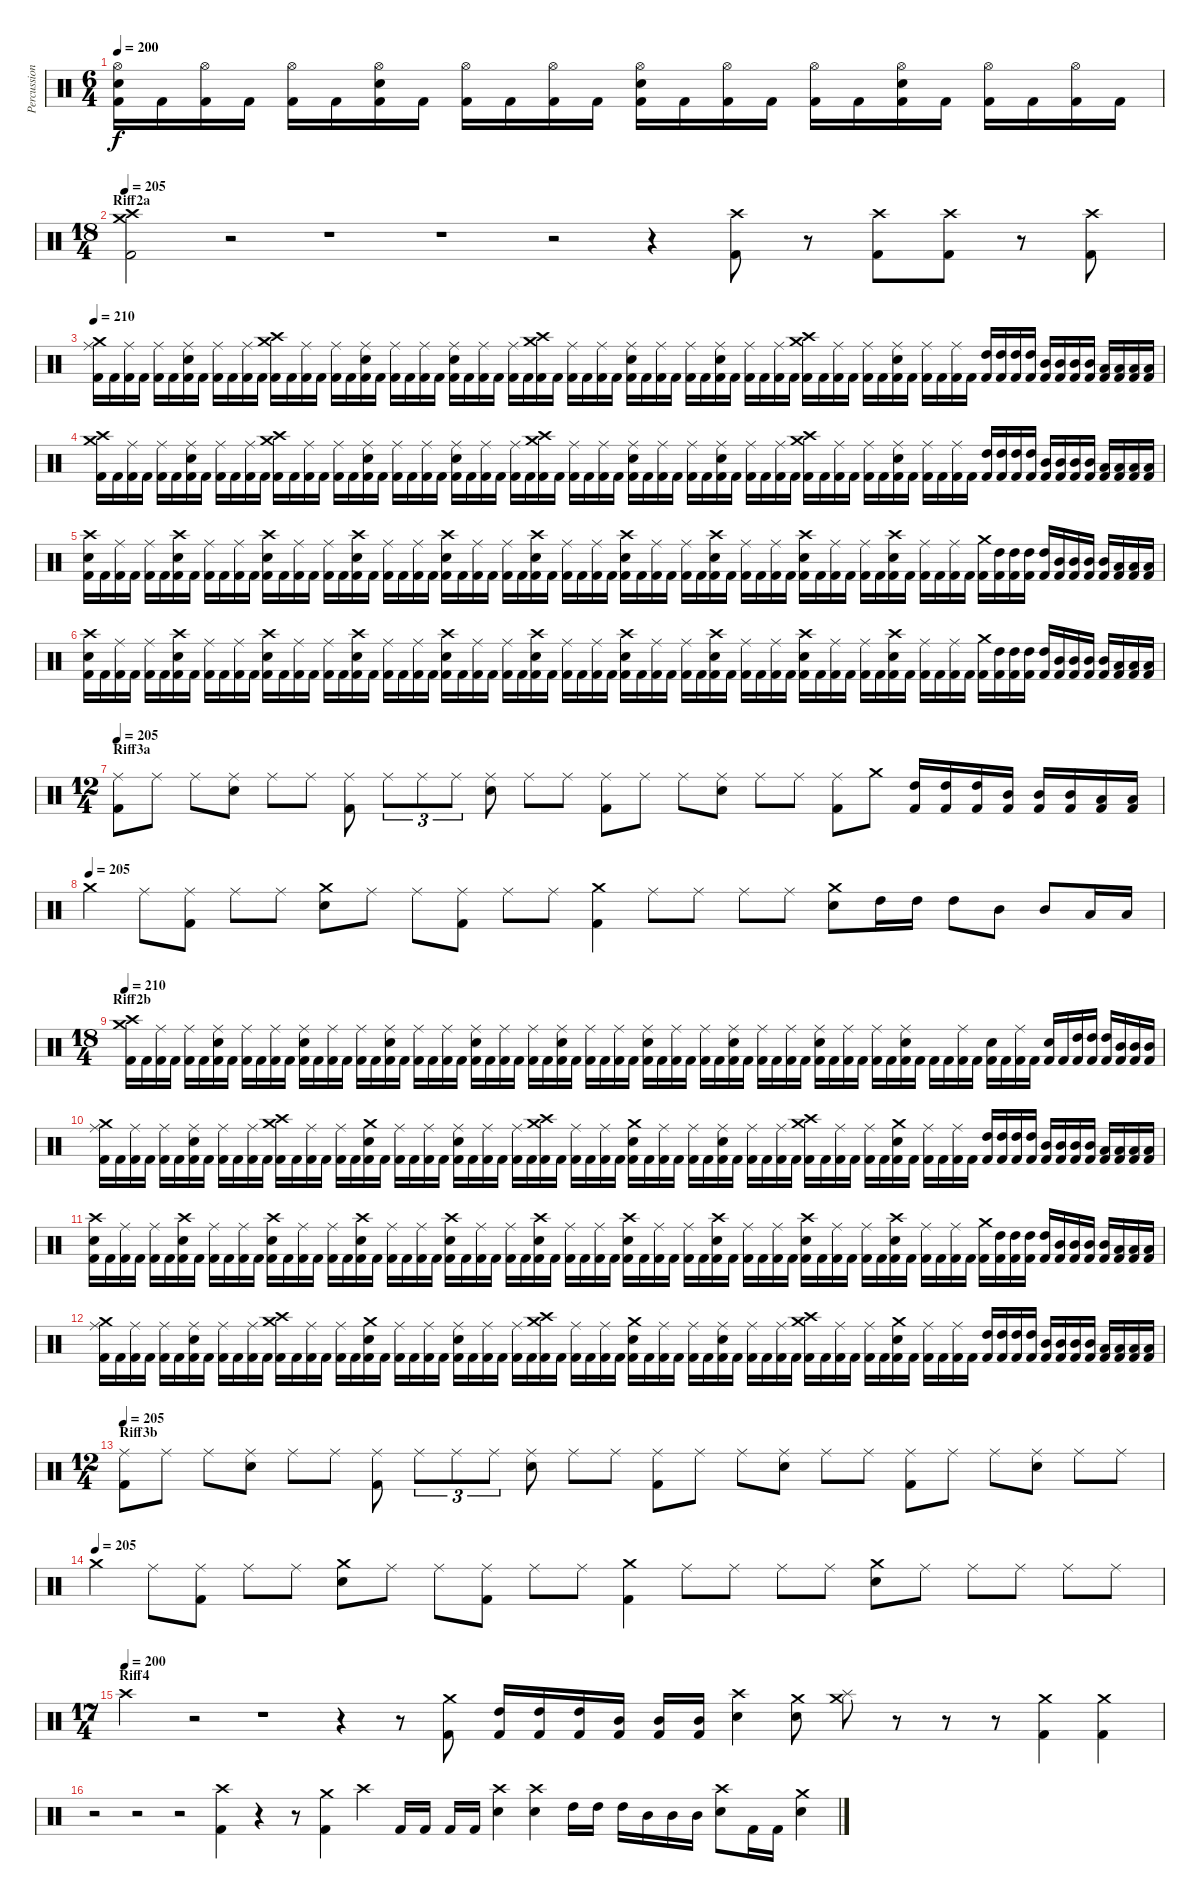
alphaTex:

\track ("Percussion" "Percussion") {instrument percussion}
\staff {score}
\articulation defaults
\ts (6 4)
\tempo 200
\clef neutral
\ks c
("Hi-Hat (open)" "Electric Snare (hit)" "Kick (hit) 2").16{dy f} "Kick (hit) 2".16 ("Hi-Hat (open)" "Kick (hit) 2").16 "Kick (hit) 2".16 ("Hi-Hat (open)" "Kick (hit) 2").16 "Kick (hit) 2".16 ("Hi-Hat (open)" "Electric Snare (hit)" "Kick (hit) 2").16 "Kick (hit) 2".16 ("Hi-Hat (open)" "Kick (hit) 2").16 "Kick (hit) 2".16 ("Hi-Hat (open)" "Kick (hit) 2").16 "Kick (hit) 2".16 ("Hi-Hat (open)" "Electric Snare (hit)" "Kick (hit) 2").16 "Kick (hit) 2".16 ("Hi-Hat (open)" "Kick (hit) 2").16 "Kick (hit) 2".16 ("Hi-Hat (open)" "Kick (hit) 2").16 "Kick (hit) 2".16 ("Hi-Hat (open)" "Electric Snare (hit)" "Kick (hit) 2").16 "Kick (hit) 2".16 ("Hi-Hat (open)" "Kick (hit) 2").16 "Kick (hit) 2".16 ("Hi-Hat (open)" "Kick (hit) 2").16 "Kick (hit) 2".16 |
\ts (18 4)
\section ("" "Riff2a")
\tempo 205
("Crash medium (hit)" "Crash high (hit)" "Kick (hit) 2").2 r.2 r.1 r.1 r.2 r.4 ("Crash high (hit)" "Kick (hit) 2").8 r.8 ("Crash high (hit)" "Kick (hit) 2").8 ("Crash high (hit)" "Kick (hit) 2").8 r.8 ("Crash high (hit)" "Kick (hit) 2").8 |
\tempo 210
("Ride (middle)" "Crash medium (hit)" "Kick (hit) 2").16 "Kick (hit) 2".16 ("Ride (middle)" "Kick (hit) 2").16 "Kick (hit) 2".16 ("Ride (middle)" "Kick (hit) 2").16 "Kick (hit) 2".16 ("Ride (middle)" "Electric Snare (hit)" "Kick (hit) 2").16 "Kick (hit) 2".16 ("Ride (middle)" "Kick (hit) 2").16 "Kick (hit) 2".16 ("Ride (middle)" "Kick (hit) 2").16 "Kick (hit) 2".16 ("Crash high (hit)" "Crash medium (hit)" "Kick (hit) 2").16 "Kick (hit) 2".16 ("Ride (middle)" "Kick (hit) 2").16 "Kick (hit) 2".16 ("Ride (middle)" "Kick (hit) 2").16 "Kick (hit) 2".16 ("Ride (middle)" "Electric Snare (hit)" "Kick (hit) 2").16 "Kick (hit) 2".16 ("Ride (middle)" "Kick (hit) 2").16 "Kick (hit) 2".16 ("Ride (middle)" "Kick (hit) 2").16 "Kick (hit) 2".16 ("Ride (middle)" "Electric Snare (hit)" "Kick (hit) 2").16 "Kick (hit) 2".16 ("Ride (middle)" "Kick (hit) 2").16 "Kick (hit) 2".16 ("Ride (middle)" "Kick (hit) 2").16 "Kick (hit) 2".16 ("Crash high (hit)" "Crash medium (hit)" "Kick (hit) 2").16 "Kick (hit) 2".16 ("Ride (middle)" "Kick (hit) 2").16 "Kick (hit) 2".16 ("Ride (middle)" "Kick (hit) 2").16 "Kick (hit) 2".16 ("Ride (middle)" "Electric Snare (hit)" "Kick (hit) 2").16 "Kick (hit) 2".16 ("Ride (middle)" "Kick (hit) 2").16 "Kick (hit) 2".16 ("Ride (middle)" "Kick (hit) 2").16 "Kick (hit) 2".16 ("Ride (middle)" "Electric Snare (hit)" "Kick (hit) 2").16 "Kick (hit) 2".16 ("Ride (middle)" "Kick (hit) 2").16 "Kick (hit) 2".16 ("Ride (middle)" "Kick (hit) 2").16 "Kick (hit) 2".16 ("Crash medium (hit)" "Crash high (hit)" "Kick (hit) 2").16 "Kick (hit) 2".16 ("Ride (middle)" "Kick (hit) 2").16 "Kick (hit) 2".16 ("Ride (middle)" "Kick (hit) 2").16 "Kick (hit) 2".16 ("Ride (middle)" "Electric Snare (hit)" "Kick (hit) 2").16 "Kick (hit) 2".16 ("Ride (middle)" "Kick (hit) 2").16 "Kick (hit) 2".16 ("Ride (middle)" "Kick (hit) 2").16 "Kick (hit) 2".16 ("High Tom (hit)" "Kick (hit) 2").16 ("High Tom (hit)" "Kick (hit) 2").16 ("High Tom (hit)" "Kick (hit) 2").16 ("High Tom (hit)" "Kick (hit) 2").16 ("Mid Tom (hit)" "Kick (hit) 2").16 ("Mid Tom (hit)" "Kick (hit) 2").16 ("Mid Tom (hit)" "Kick (hit) 2").16 ("Mid Tom (hit)" "Kick (hit) 2").16 ("Low Tom (hit)" "Kick (hit) 2").16 ("Low Tom (hit)" "Kick (hit) 2").16 ("Low Tom (hit)" "Kick (hit) 2").16 ("Low Tom (hit)" "Kick (hit) 2").16 |
("Crash high (hit)" "Crash medium (hit)" "Kick (hit) 2").16 "Kick (hit) 2".16 ("Ride (middle)" "Kick (hit) 2").16 "Kick (hit) 2".16 ("Ride (middle)" "Kick (hit) 2").16 "Kick (hit) 2".16 ("Ride (middle)" "Electric Snare (hit)" "Kick (hit) 2").16 "Kick (hit) 2".16 ("Ride (middle)" "Kick (hit) 2").16 "Kick (hit) 2".16 ("Ride (middle)" "Kick (hit) 2").16 "Kick (hit) 2".16 ("Crash high (hit)" "Crash medium (hit)" "Kick (hit) 2").16 "Kick (hit) 2".16 ("Ride (middle)" "Kick (hit) 2").16 "Kick (hit) 2".16 ("Ride (middle)" "Kick (hit) 2").16 "Kick (hit) 2".16 ("Ride (middle)" "Electric Snare (hit)" "Kick (hit) 2").16 "Kick (hit) 2".16 ("Ride (middle)" "Kick (hit) 2").16 "Kick (hit) 2".16 ("Ride (middle)" "Kick (hit) 2").16 "Kick (hit) 2".16 ("Ride (middle)" "Electric Snare (hit)" "Kick (hit) 2").16 "Kick (hit) 2".16 ("Ride (middle)" "Kick (hit) 2").16 "Kick (hit) 2".16 ("Ride (middle)" "Kick (hit) 2").16 "Kick (hit) 2".16 ("Crash high (hit)" "Crash medium (hit)" "Kick (hit) 2").16 "Kick (hit) 2".16 ("Ride (middle)" "Kick (hit) 2").16 "Kick (hit) 2".16 ("Ride (middle)" "Kick (hit) 2").16 "Kick (hit) 2".16 ("Ride (middle)" "Electric Snare (hit)" "Kick (hit) 2").16 "Kick (hit) 2".16 ("Ride (middle)" "Kick (hit) 2").16 "Kick (hit) 2".16 ("Ride (middle)" "Kick (hit) 2").16 "Kick (hit) 2".16 ("Ride (middle)" "Electric Snare (hit)" "Kick (hit) 2").16 "Kick (hit) 2".16 ("Ride (middle)" "Kick (hit) 2").16 "Kick (hit) 2".16 ("Ride (middle)" "Kick (hit) 2").16 "Kick (hit) 2".16 ("Crash medium (hit)" "Crash high (hit)" "Kick (hit) 2").16 "Kick (hit) 2".16 ("Ride (middle)" "Kick (hit) 2").16 "Kick (hit) 2".16 ("Ride (middle)" "Kick (hit) 2").16 "Kick (hit) 2".16 ("Ride (middle)" "Electric Snare (hit)" "Kick (hit) 2").16 "Kick (hit) 2".16 ("Ride (middle)" "Kick (hit) 2").16 "Kick (hit) 2".16 ("Ride (middle)" "Kick (hit) 2").16 "Kick (hit) 2".16 ("High Tom (hit)" "Kick (hit) 2").16 ("High Tom (hit)" "Kick (hit) 2").16 ("High Tom (hit)" "Kick (hit) 2").16 ("High Tom (hit)" "Kick (hit) 2").16 ("Mid Tom (hit)" "Kick (hit) 2").16 ("Mid Tom (hit)" "Kick (hit) 2").16 ("Mid Tom (hit)" "Kick (hit) 2").16 ("Mid Tom (hit)" "Kick (hit) 2").16 ("Low Tom (hit)" "Kick (hit) 2").16 ("Low Tom (hit)" "Kick (hit) 2").16 ("Low Tom (hit)" "Kick (hit) 2").16 ("Low Tom (hit)" "Kick (hit) 2").16 |
("Crash high (hit)" "Electric Snare (hit)" "Kick (hit) 2").16 "Kick (hit) 2".16 ("Ride (middle)" "Kick (hit) 2").16 "Kick (hit) 2".16 ("Ride (middle)" "Kick (hit) 2").16 "Kick (hit) 2".16 ("Crash high (hit)" "Electric Snare (hit)" "Kick (hit) 2").16 "Kick (hit) 2".16 ("Ride (middle)" "Kick (hit) 2").16 "Kick (hit) 2".16 ("Ride (middle)" "Kick (hit) 2").16 "Kick (hit) 2".16 ("Crash high (hit)" "Electric Snare (hit)" "Kick (hit) 2").16 "Kick (hit) 2".16 ("Ride (middle)" "Kick (hit) 2").16 "Kick (hit) 2".16 ("Ride (middle)" "Kick (hit) 2").16 "Kick (hit) 2".16 ("Crash high (hit)" "Electric Snare (hit)" "Kick (hit) 2").16 "Kick (hit) 2".16 ("Ride (middle)" "Kick (hit) 2").16 "Kick (hit) 2".16 ("Ride (middle)" "Kick (hit) 2").16 "Kick (hit) 2".16 ("Crash high (hit)" "Electric Snare (hit)" "Kick (hit) 2").16 "Kick (hit) 2".16 ("Ride (middle)" "Kick (hit) 2").16 "Kick (hit) 2".16 ("Ride (middle)" "Kick (hit) 2").16 "Kick (hit) 2".16 ("Crash high (hit)" "Electric Snare (hit)" "Kick (hit) 2").16 "Kick (hit) 2".16 ("Ride (middle)" "Kick (hit) 2").16 "Kick (hit) 2".16 ("Ride (middle)" "Kick (hit) 2").16 "Kick (hit) 2".16 ("Crash high (hit)" "Electric Snare (hit)" "Kick (hit) 2").16 "Kick (hit) 2".16 ("Ride (middle)" "Kick (hit) 2").16 "Kick (hit) 2".16 ("Ride (middle)" "Kick (hit) 2").16 "Kick (hit) 2".16 ("Crash high (hit)" "Electric Snare (hit)" "Kick (hit) 2").16 "Kick (hit) 2".16 ("Ride (middle)" "Kick (hit) 2").16 "Kick (hit) 2".16 ("Ride (middle)" "Kick (hit) 2").16 "Kick (hit) 2".16 ("Crash high (hit)" "Electric Snare (hit)" "Kick (hit) 2").16 "Kick (hit) 2".16 ("Ride (middle)" "Kick (hit) 2").16 "Kick (hit) 2".16 ("Ride (middle)" "Kick (hit) 2").16 "Kick (hit) 2".16 ("Crash high (hit)" "Electric Snare (hit)" "Kick (hit) 2").16 "Kick (hit) 2".16 ("Ride (middle)" "Kick (hit) 2").16 "Kick (hit) 2".16 ("Ride (middle)" "Kick (hit) 2").16 "Kick (hit) 2".16 ("Crash medium (hit)" "Kick (hit) 2").16 ("High Tom (hit)" "Kick (hit) 2").16 ("High Tom (hit)" "Kick (hit) 2").16 ("High Tom (hit)" "Kick (hit) 2").16 ("High Tom (hit)" "Kick (hit) 2").16 ("Mid Tom (hit)" "Kick (hit) 2").16 ("Mid Tom (hit)" "Kick (hit) 2").16 ("Mid Tom (hit)" "Kick (hit) 2").16 ("Mid Tom (hit)" "Kick (hit) 2").16 ("Low Tom (hit)" "Kick (hit) 2").16 ("Low Tom (hit)" "Kick (hit) 2").16 ("Low Tom (hit)" "Kick (hit) 2").16 |
("Crash high (hit)" "Electric Snare (hit)" "Kick (hit) 2").16 "Kick (hit) 2".16 ("Ride (middle)" "Kick (hit) 2").16 "Kick (hit) 2".16 ("Ride (middle)" "Kick (hit) 2").16 "Kick (hit) 2".16 ("Crash high (hit)" "Electric Snare (hit)" "Kick (hit) 2").16 "Kick (hit) 2".16 ("Ride (middle)" "Kick (hit) 2").16 "Kick (hit) 2".16 ("Ride (middle)" "Kick (hit) 2").16 "Kick (hit) 2".16 ("Crash high (hit)" "Electric Snare (hit)" "Kick (hit) 2").16 "Kick (hit) 2".16 ("Ride (middle)" "Kick (hit) 2").16 "Kick (hit) 2".16 ("Ride (middle)" "Kick (hit) 2").16 "Kick (hit) 2".16 ("Crash high (hit)" "Electric Snare (hit)" "Kick (hit) 2").16 "Kick (hit) 2".16 ("Ride (middle)" "Kick (hit) 2").16 "Kick (hit) 2".16 ("Ride (middle)" "Kick (hit) 2").16 "Kick (hit) 2".16 ("Crash high (hit)" "Electric Snare (hit)" "Kick (hit) 2").16 "Kick (hit) 2".16 ("Ride (middle)" "Kick (hit) 2").16 "Kick (hit) 2".16 ("Ride (middle)" "Kick (hit) 2").16 "Kick (hit) 2".16 ("Crash high (hit)" "Electric Snare (hit)" "Kick (hit) 2").16 "Kick (hit) 2".16 ("Ride (middle)" "Kick (hit) 2").16 "Kick (hit) 2".16 ("Ride (middle)" "Kick (hit) 2").16 "Kick (hit) 2".16 ("Crash high (hit)" "Electric Snare (hit)" "Kick (hit) 2").16 "Kick (hit) 2".16 ("Ride (middle)" "Kick (hit) 2").16 "Kick (hit) 2".16 ("Ride (middle)" "Kick (hit) 2").16 "Kick (hit) 2".16 ("Crash high (hit)" "Electric Snare (hit)" "Kick (hit) 2").16 "Kick (hit) 2".16 ("Ride (middle)" "Kick (hit) 2").16 "Kick (hit) 2".16 ("Ride (middle)" "Kick (hit) 2").16 "Kick (hit) 2".16 ("Crash high (hit)" "Electric Snare (hit)" "Kick (hit) 2").16 "Kick (hit) 2".16 ("Ride (middle)" "Kick (hit) 2").16 "Kick (hit) 2".16 ("Ride (middle)" "Kick (hit) 2").16 "Kick (hit) 2".16 ("Crash high (hit)" "Electric Snare (hit)" "Kick (hit) 2").16 "Kick (hit) 2".16 ("Ride (middle)" "Kick (hit) 2").16 "Kick (hit) 2".16 ("Ride (middle)" "Kick (hit) 2").16 "Kick (hit) 2".16 ("Crash medium (hit)" "Kick (hit) 2").16 ("High Tom (hit)" "Kick (hit) 2").16 ("High Tom (hit)" "Kick (hit) 2").16 ("High Tom (hit)" "Kick (hit) 2").16 ("High Tom (hit)" "Kick (hit) 2").16 ("Mid Tom (hit)" "Kick (hit) 2").16 ("Mid Tom (hit)" "Kick (hit) 2").16 ("Mid Tom (hit)" "Kick (hit) 2").16 ("Mid Tom (hit)" "Kick (hit) 2").16 ("Low Tom (hit)" "Kick (hit) 2").16 ("Low Tom (hit)" "Kick (hit) 2").16 ("Low Tom (hit)" "Kick (hit) 2").16 |
\ts (12 4)
\section ("" "Riff3a")
\tempo 205
("Ride (middle)" "Kick (hit) 2").8 "Ride (middle)".8 "Ride (middle)".8 ("Ride (middle)" "Electric Snare (hit)").8 "Ride (middle)".8 "Ride (middle)".8 ("Ride (middle)" "Kick (hit) 2").8 "Ride (middle)".8{tu (3 2)} "Ride (middle)".8{tu (3 2)} "Ride (middle)".8{tu (3 2)} ("Ride (middle)" "Electric Snare (hit)").8 "Ride (middle)".8 "Ride (middle)".8 ("Ride (middle)" "Kick (hit) 2").8 "Ride (middle)".8 "Ride (middle)".8 ("Ride (middle)" "Electric Snare (hit)").8 "Ride (middle)".8 "Ride (middle)".8 ("Ride (middle)" "Kick (hit) 2").8 "Crash medium (hit)".8 ("High Tom (hit)" "Kick (hit) 2").16 ("High Tom (hit)" "Kick (hit) 2").16 ("High Tom (hit)" "Kick (hit) 2").16 ("Mid Tom (hit)" "Kick (hit) 2").16 ("Mid Tom (hit)" "Kick (hit) 2").16 ("Mid Tom (hit)" "Kick (hit) 2").16 ("Low Tom (hit)" "Kick (hit) 2").16 ("Low Tom (hit)" "Kick (hit) 2").16 |
\tempo (205)
"Crash medium (hit)".4 "Ride (middle)".8 ("Ride (middle)" "Kick (hit) 2").8 "Ride (middle)".8 "Ride (middle)".8 ("Crash medium (hit)" "Electric Snare (hit)").8 "Ride (middle)".8 "Ride (middle)".8 ("Ride (middle)" "Kick (hit) 2").8 "Ride (middle)".8 "Ride (middle)".8 ("Crash medium (hit)" "Kick (hit) 2").4 "Ride (middle)".8 "Ride (middle)".8 "Ride (middle)".8 "Ride (middle)".8 ("Crash medium (hit)" "Electric Snare (hit)").8 "High Tom (hit)".16 "High Tom (hit)".16 "High Tom (hit)".8 "Mid Tom (hit)".8 "Mid Tom (hit)".8 "Low Tom (hit)".16 "Low Tom (hit)".16 |
\ts (18 4)
\section ("" "Riff2b")
\tempo 210
("Crash medium (hit)" "Crash high (hit)" "Kick (hit) 2").16 "Kick (hit) 2".16 ("Ride (middle)" "Kick (hit) 2").16 "Kick (hit) 2".16 ("Ride (middle)" "Kick (hit) 2").16 "Kick (hit) 2".16 ("Ride (middle)" "Electric Snare (hit)" "Kick (hit) 2").16 "Kick (hit) 2".16 ("Ride (middle)" "Kick (hit) 2").16 "Kick (hit) 2".16 ("Ride (middle)" "Kick (hit) 2").16 "Kick (hit) 2".16 ("Ride (middle)" "Electric Snare (hit)" "Kick (hit) 2").16 "Kick (hit) 2".16 ("Ride (middle)" "Kick (hit) 2").16 "Kick (hit) 2".16 ("Ride (middle)" "Kick (hit) 2").16 "Kick (hit) 2".16 ("Ride (middle)" "Electric Snare (hit)" "Kick (hit) 2").16 "Kick (hit) 2".16 ("Ride (middle)" "Kick (hit) 2").16 "Kick (hit) 2".16 ("Ride (middle)" "Kick (hit) 2").16 "Kick (hit) 2".16 ("Ride (middle)" "Electric Snare (hit)" "Kick (hit) 2").16 "Kick (hit) 2".16 ("Ride (middle)" "Kick (hit) 2").16 "Kick (hit) 2".16 ("Ride (middle)" "Kick (hit) 2").16 "Kick (hit) 2".16 ("Ride (middle)" "Electric Snare (hit)" "Kick (hit) 2").16 "Kick (hit) 2".16 ("Ride (middle)" "Kick (hit) 2").16 "Kick (hit) 2".16 ("Ride (middle)" "Kick (hit) 2").16 "Kick (hit) 2".16 ("Ride (middle)" "Electric Snare (hit)" "Kick (hit) 2").16 "Kick (hit) 2".16 ("Ride (middle)" "Kick (hit) 2").16 "Kick (hit) 2".16 ("Ride (middle)" "Kick (hit) 2").16 "Kick (hit) 2".16 ("Ride (middle)" "Electric Snare (hit)" "Kick (hit) 2").16 "Kick (hit) 2".16 ("Ride (middle)" "Kick (hit) 2").16 "Kick (hit) 2".16 ("Ride (middle)" "Kick (hit) 2").16 "Kick (hit) 2".16 ("Ride (middle)" "Electric Snare (hit)" "Kick (hit) 2").16 "Kick (hit) 2".16 ("Ride (middle)" "Kick (hit) 2").16 "Kick (hit) 2".16 ("Ride (middle)" "Kick (hit) 2").16 "Kick (hit) 2".16 ("Ride (middle)" "Electric Snare (hit)" "Kick (hit) 2").16 "Kick (hit) 2".16 "Kick (hit) 2".16 "Kick (hit) 2".16 ("Ride (middle)" "Kick (hit) 2").16 "Kick (hit) 2".16 ("Electric Snare (hit)" "Kick (hit) 2").16 "Kick (hit) 2".16 ("Ride (middle)" "Kick (hit) 2").16 "Kick (hit) 2".16 ("Electric Snare (hit)" "Kick (hit) 2").16 "Kick (hit) 2".16 ("High Tom (hit)" "Kick (hit) 2").16 ("High Tom (hit)" "Kick (hit) 2").16 ("High Tom (hit)" "Kick (hit) 2").16 ("Mid Tom (hit)" "Kick (hit) 2").16 ("Mid Tom (hit)" "Kick (hit) 2").16 ("Mid Tom (hit)" "Kick (hit) 2").16 |
("Ride (middle)" "Crash medium (hit)" "Kick (hit) 2").16 "Kick (hit) 2".16 ("Ride (middle)" "Kick (hit) 2").16 "Kick (hit) 2".16 ("Ride (middle)" "Kick (hit) 2").16 "Kick (hit) 2".16 ("Ride (middle)" "Electric Snare (hit)" "Kick (hit) 2").16 "Kick (hit) 2".16 ("Ride (middle)" "Kick (hit) 2").16 "Kick (hit) 2".16 ("Ride (middle)" "Kick (hit) 2").16 "Kick (hit) 2".16 ("Crash high (hit)" "Crash medium (hit)" "Kick (hit) 2").16 "Kick (hit) 2".16 ("Ride (middle)" "Kick (hit) 2").16 "Kick (hit) 2".16 ("Ride (middle)" "Kick (hit) 2").16 "Kick (hit) 2".16 ("Crash medium (hit)" "Electric Snare (hit)" "Kick (hit) 2").16 "Kick (hit) 2".16 ("Ride (middle)" "Kick (hit) 2").16 "Kick (hit) 2".16 ("Ride (middle)" "Kick (hit) 2").16 "Kick (hit) 2".16 ("Ride (middle)" "Electric Snare (hit)" "Kick (hit) 2").16 "Kick (hit) 2".16 ("Ride (middle)" "Kick (hit) 2").16 "Kick (hit) 2".16 ("Ride (middle)" "Kick (hit) 2").16 "Kick (hit) 2".16 ("Crash high (hit)" "Crash medium (hit)" "Kick (hit) 2").16 "Kick (hit) 2".16 ("Ride (middle)" "Kick (hit) 2").16 "Kick (hit) 2".16 ("Ride (middle)" "Kick (hit) 2").16 "Kick (hit) 2".16 ("Crash medium (hit)" "Electric Snare (hit)" "Kick (hit) 2").16 "Kick (hit) 2".16 ("Ride (middle)" "Kick (hit) 2").16 "Kick (hit) 2".16 ("Ride (middle)" "Kick (hit) 2").16 "Kick (hit) 2".16 ("Ride (middle)" "Electric Snare (hit)" "Kick (hit) 2").16 "Kick (hit) 2".16 ("Ride (middle)" "Kick (hit) 2").16 "Kick (hit) 2".16 ("Ride (middle)" "Kick (hit) 2").16 "Kick (hit) 2".16 ("Crash medium (hit)" "Crash high (hit)" "Kick (hit) 2").16 "Kick (hit) 2".16 ("Ride (middle)" "Kick (hit) 2").16 "Kick (hit) 2".16 ("Ride (middle)" "Kick (hit) 2").16 "Kick (hit) 2".16 ("Crash medium (hit)" "Electric Snare (hit)" "Kick (hit) 2").16 "Kick (hit) 2".16 ("Ride (middle)" "Kick (hit) 2").16 "Kick (hit) 2".16 ("Ride (middle)" "Kick (hit) 2").16 "Kick (hit) 2".16 ("High Tom (hit)" "Kick (hit) 2").16 ("High Tom (hit)" "Kick (hit) 2").16 ("High Tom (hit)" "Kick (hit) 2").16 ("High Tom (hit)" "Kick (hit) 2").16 ("Mid Tom (hit)" "Kick (hit) 2").16 ("Mid Tom (hit)" "Kick (hit) 2").16 ("Mid Tom (hit)" "Kick (hit) 2").16 ("Mid Tom (hit)" "Kick (hit) 2").16 ("Low Tom (hit)" "Kick (hit) 2").16 ("Low Tom (hit)" "Kick (hit) 2").16 ("Low Tom (hit)" "Kick (hit) 2").16 ("Low Tom (hit)" "Kick (hit) 2").16 |
("Crash high (hit)" "Electric Snare (hit)" "Kick (hit) 2").16 "Kick (hit) 2".16 ("Ride (middle)" "Kick (hit) 2").16 "Kick (hit) 2".16 ("Ride (middle)" "Kick (hit) 2").16 "Kick (hit) 2".16 ("Crash high (hit)" "Electric Snare (hit)" "Kick (hit) 2").16 "Kick (hit) 2".16 ("Ride (middle)" "Kick (hit) 2").16 "Kick (hit) 2".16 ("Ride (middle)" "Kick (hit) 2").16 "Kick (hit) 2".16 ("Crash high (hit)" "Electric Snare (hit)" "Kick (hit) 2").16 "Kick (hit) 2".16 ("Ride (middle)" "Kick (hit) 2").16 "Kick (hit) 2".16 ("Ride (middle)" "Kick (hit) 2").16 "Kick (hit) 2".16 ("Crash high (hit)" "Electric Snare (hit)" "Kick (hit) 2").16 "Kick (hit) 2".16 ("Ride (middle)" "Kick (hit) 2").16 "Kick (hit) 2".16 ("Ride (middle)" "Kick (hit) 2").16 "Kick (hit) 2".16 ("Crash high (hit)" "Electric Snare (hit)" "Kick (hit) 2").16 "Kick (hit) 2".16 ("Ride (middle)" "Kick (hit) 2").16 "Kick (hit) 2".16 ("Ride (middle)" "Kick (hit) 2").16 "Kick (hit) 2".16 ("Crash high (hit)" "Electric Snare (hit)" "Kick (hit) 2").16 "Kick (hit) 2".16 ("Ride (middle)" "Kick (hit) 2").16 "Kick (hit) 2".16 ("Ride (middle)" "Kick (hit) 2").16 "Kick (hit) 2".16 ("Crash high (hit)" "Electric Snare (hit)" "Kick (hit) 2").16 "Kick (hit) 2".16 ("Ride (middle)" "Kick (hit) 2").16 "Kick (hit) 2".16 ("Ride (middle)" "Kick (hit) 2").16 "Kick (hit) 2".16 ("Crash high (hit)" "Electric Snare (hit)" "Kick (hit) 2").16 "Kick (hit) 2".16 ("Ride (middle)" "Kick (hit) 2").16 "Kick (hit) 2".16 ("Ride (middle)" "Kick (hit) 2").16 "Kick (hit) 2".16 ("Crash high (hit)" "Electric Snare (hit)" "Kick (hit) 2").16 "Kick (hit) 2".16 ("Ride (middle)" "Kick (hit) 2").16 "Kick (hit) 2".16 ("Ride (middle)" "Kick (hit) 2").16 "Kick (hit) 2".16 ("Crash high (hit)" "Electric Snare (hit)" "Kick (hit) 2").16 "Kick (hit) 2".16 ("Ride (middle)" "Kick (hit) 2").16 "Kick (hit) 2".16 ("Ride (middle)" "Kick (hit) 2").16 "Kick (hit) 2".16 ("Crash medium (hit)" "Kick (hit) 2").16 ("High Tom (hit)" "Kick (hit) 2").16 ("High Tom (hit)" "Kick (hit) 2").16 ("High Tom (hit)" "Kick (hit) 2").16 ("High Tom (hit)" "Kick (hit) 2").16 ("Mid Tom (hit)" "Kick (hit) 2").16 ("Mid Tom (hit)" "Kick (hit) 2").16 ("Mid Tom (hit)" "Kick (hit) 2").16 ("Mid Tom (hit)" "Kick (hit) 2").16 ("Low Tom (hit)" "Kick (hit) 2").16 ("Low Tom (hit)" "Kick (hit) 2").16 ("Low Tom (hit)" "Kick (hit) 2").16 |
("Ride (middle)" "Crash medium (hit)" "Kick (hit) 2").16 "Kick (hit) 2".16 ("Ride (middle)" "Kick (hit) 2").16 "Kick (hit) 2".16 ("Ride (middle)" "Kick (hit) 2").16 "Kick (hit) 2".16 ("Ride (middle)" "Electric Snare (hit)" "Kick (hit) 2").16 "Kick (hit) 2".16 ("Ride (middle)" "Kick (hit) 2").16 "Kick (hit) 2".16 ("Ride (middle)" "Kick (hit) 2").16 "Kick (hit) 2".16 ("Crash high (hit)" "Crash medium (hit)" "Kick (hit) 2").16 "Kick (hit) 2".16 ("Ride (middle)" "Kick (hit) 2").16 "Kick (hit) 2".16 ("Ride (middle)" "Kick (hit) 2").16 "Kick (hit) 2".16 ("Crash medium (hit)" "Electric Snare (hit)" "Kick (hit) 2").16 "Kick (hit) 2".16 ("Ride (middle)" "Kick (hit) 2").16 "Kick (hit) 2".16 ("Ride (middle)" "Kick (hit) 2").16 "Kick (hit) 2".16 ("Ride (middle)" "Electric Snare (hit)" "Kick (hit) 2").16 "Kick (hit) 2".16 ("Ride (middle)" "Kick (hit) 2").16 "Kick (hit) 2".16 ("Ride (middle)" "Kick (hit) 2").16 "Kick (hit) 2".16 ("Crash high (hit)" "Crash medium (hit)" "Kick (hit) 2").16 "Kick (hit) 2".16 ("Ride (middle)" "Kick (hit) 2").16 "Kick (hit) 2".16 ("Ride (middle)" "Kick (hit) 2").16 "Kick (hit) 2".16 ("Crash medium (hit)" "Electric Snare (hit)" "Kick (hit) 2").16 "Kick (hit) 2".16 ("Ride (middle)" "Kick (hit) 2").16 "Kick (hit) 2".16 ("Ride (middle)" "Kick (hit) 2").16 "Kick (hit) 2".16 ("Ride (middle)" "Electric Snare (hit)" "Kick (hit) 2").16 "Kick (hit) 2".16 ("Ride (middle)" "Kick (hit) 2").16 "Kick (hit) 2".16 ("Ride (middle)" "Kick (hit) 2").16 "Kick (hit) 2".16 ("Crash medium (hit)" "Crash high (hit)" "Kick (hit) 2").16 "Kick (hit) 2".16 ("Ride (middle)" "Kick (hit) 2").16 "Kick (hit) 2".16 ("Ride (middle)" "Kick (hit) 2").16 "Kick (hit) 2".16 ("Crash medium (hit)" "Electric Snare (hit)" "Kick (hit) 2").16 "Kick (hit) 2".16 ("Ride (middle)" "Kick (hit) 2").16 "Kick (hit) 2".16 ("Ride (middle)" "Kick (hit) 2").16 "Kick (hit) 2".16 ("High Tom (hit)" "Kick (hit) 2").16 ("High Tom (hit)" "Kick (hit) 2").16 ("High Tom (hit)" "Kick (hit) 2").16 ("High Tom (hit)" "Kick (hit) 2").16 ("Mid Tom (hit)" "Kick (hit) 2").16 ("Mid Tom (hit)" "Kick (hit) 2").16 ("Mid Tom (hit)" "Kick (hit) 2").16 ("Mid Tom (hit)" "Kick (hit) 2").16 ("Low Tom (hit)" "Kick (hit) 2").16 ("Low Tom (hit)" "Kick (hit) 2").16 ("Low Tom (hit)" "Kick (hit) 2").16 ("Low Tom (hit)" "Kick (hit) 2").16 |
\ts (12 4)
\section ("" "Riff3b")
\tempo 205
("Ride (middle)" "Kick (hit) 2").8 "Ride (middle)".8 "Ride (middle)".8 ("Ride (middle)" "Electric Snare (hit)").8 "Ride (middle)".8 "Ride (middle)".8 ("Ride (middle)" "Kick (hit) 2").8 "Ride (middle)".8{tu (3 2)} "Ride (middle)".8{tu (3 2)} "Ride (middle)".8{tu (3 2)} ("Ride (middle)" "Electric Snare (hit)").8 "Ride (middle)".8 "Ride (middle)".8 ("Ride (middle)" "Kick (hit) 2").8 "Ride (middle)".8 "Ride (middle)".8 ("Ride (middle)" "Electric Snare (hit)").8 "Ride (middle)".8 "Ride (middle)".8 ("Ride (middle)" "Kick (hit) 2").8 "Ride (middle)".8 "Ride (middle)".8 ("Ride (middle)" "Electric Snare (hit)").8 "Ride (middle)".8 "Ride (middle)".8 |
\tempo (205)
"Crash medium (hit)".4 "Ride (middle)".8 ("Ride (middle)" "Kick (hit) 2").8 "Ride (middle)".8 "Ride (middle)".8 ("Crash medium (hit)" "Electric Snare (hit)").8 "Ride (middle)".8 "Ride (middle)".8 ("Ride (middle)" "Kick (hit) 2").8 "Ride (middle)".8 "Ride (middle)".8 ("Crash medium (hit)" "Kick (hit) 2").4 "Ride (middle)".8 "Ride (middle)".8 "Ride (middle)".8 "Ride (middle)".8 ("Crash medium (hit)" "Electric Snare (hit)").8 "Ride (middle)".8 "Ride (middle)".8 "Ride (middle)".8 "Ride (middle)".8 "Ride (middle)".8 |
\ts (17 4)
\section ("" "Riff4")
\tempo (200)
"Crash high (hit)".2 r.2 r.1 r.4 r.8 ("Crash medium (hit)" "Kick (hit) 2").8 ("High Tom (hit)" "Kick (hit) 2").16 ("High Tom (hit)" "Kick (hit) 2").16 ("High Tom (hit)" "Kick (hit) 2").16 ("Mid Tom (hit)" "Kick (hit) 2").16 ("Mid Tom (hit)" "Kick (hit) 2").16 ("Mid Tom (hit)" "Kick (hit) 2").16 ("Electric Snare (hit)" "Crash high (hit)").4 ("Electric Snare (hit)" "Crash medium (hit)").8 ("Splash (hit)" "Crash medium (hit)").8 r.8 r.8 r.8 ("Kick (hit) 2" "Crash medium (hit)").4 ("Kick (hit) 2" "Crash medium (hit)").4 |
r.2 r.2 r.2 ("Crash high (hit)" "Kick (hit) 2").4 r.4 r.8 ("Kick (hit) 2" "Crash medium (hit)").4 "Crash high (hit)".4 "Kick (hit) 2".16 "Kick (hit) 2".16 "Kick (hit) 2".16 "Kick (hit) 2".16 ("Crash high (hit)" "Electric Snare (hit)").4 ("Crash high (hit)" "Electric Snare (hit)").4 "High Tom (hit)".16 "High Tom (hit)".16 "High Tom (hit)".16 "Mid Tom (hit)".16 "Mid Tom (hit)".16 "Mid Tom (hit)".16 ("Electric Snare (hit)" "Crash high (hit)").8 "Kick (hit) 2".16 "Kick (hit) 2".16 ("Electric Snare (hit)" "Crash medium (hit)").4
